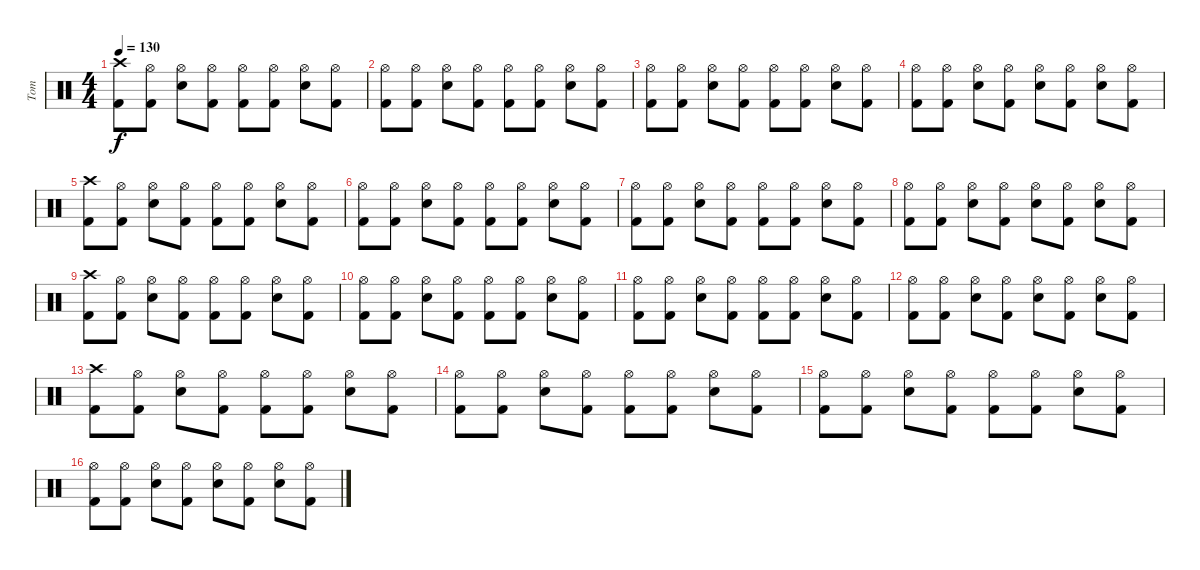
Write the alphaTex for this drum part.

\track ("Tom" "Tom") {instrument percussion}
\staff {score}
\articulation defaults
\ts (4 4)
\tempo 130
\clef neutral
\ks c
("Crash high (hit)" "Kick (hit) 2").8{dy f} ("Hi-Hat (open)" "Kick (hit) 2").8 ("Hi-Hat (open)" "Electric Snare (hit)").8 ("Hi-Hat (open)" "Kick (hit) 2").8 ("Hi-Hat (open)" "Kick (hit) 2").8 ("Hi-Hat (open)" "Kick (hit) 2").8 ("Hi-Hat (open)" "Electric Snare (hit)").8 ("Hi-Hat (open)" "Kick (hit) 2").8 |
("Hi-Hat (open)" "Kick (hit) 2").8 ("Hi-Hat (open)" "Kick (hit) 2").8 ("Hi-Hat (open)" "Electric Snare (hit)").8 ("Hi-Hat (open)" "Kick (hit) 2").8 ("Hi-Hat (open)" "Kick (hit) 2").8 ("Hi-Hat (open)" "Kick (hit) 2").8 ("Hi-Hat (open)" "Electric Snare (hit)").8 ("Hi-Hat (open)" "Kick (hit) 2").8 |
("Hi-Hat (open)" "Kick (hit) 2").8 ("Hi-Hat (open)" "Kick (hit) 2").8 ("Hi-Hat (open)" "Electric Snare (hit)").8 ("Hi-Hat (open)" "Kick (hit) 2").8 ("Hi-Hat (open)" "Kick (hit) 2").8 ("Hi-Hat (open)" "Kick (hit) 2").8 ("Hi-Hat (open)" "Electric Snare (hit)").8 ("Hi-Hat (open)" "Kick (hit) 2").8 |
("Hi-Hat (open)" "Kick (hit) 2").8 ("Hi-Hat (open)" "Kick (hit) 2").8 ("Hi-Hat (open)" "Electric Snare (hit)").8 ("Hi-Hat (open)" "Kick (hit) 2").8 ("Hi-Hat (open)" "Electric Snare (hit)").8 ("Hi-Hat (open)" "Kick (hit) 2").8 ("Hi-Hat (open)" "Electric Snare (hit)").8 ("Hi-Hat (open)" "Kick (hit) 2").8 |
("Crash high (hit)" "Kick (hit) 2").8 ("Hi-Hat (open)" "Kick (hit) 2").8 ("Hi-Hat (open)" "Electric Snare (hit)").8 ("Hi-Hat (open)" "Kick (hit) 2").8 ("Hi-Hat (open)" "Kick (hit) 2").8 ("Hi-Hat (open)" "Kick (hit) 2").8 ("Hi-Hat (open)" "Electric Snare (hit)").8 ("Hi-Hat (open)" "Kick (hit) 2").8 |
("Hi-Hat (open)" "Kick (hit) 2").8 ("Hi-Hat (open)" "Kick (hit) 2").8 ("Hi-Hat (open)" "Electric Snare (hit)").8 ("Hi-Hat (open)" "Kick (hit) 2").8 ("Hi-Hat (open)" "Kick (hit) 2").8 ("Hi-Hat (open)" "Kick (hit) 2").8 ("Hi-Hat (open)" "Electric Snare (hit)").8 ("Hi-Hat (open)" "Kick (hit) 2").8 |
("Hi-Hat (open)" "Kick (hit) 2").8 ("Hi-Hat (open)" "Kick (hit) 2").8 ("Hi-Hat (open)" "Electric Snare (hit)").8 ("Hi-Hat (open)" "Kick (hit) 2").8 ("Hi-Hat (open)" "Kick (hit) 2").8 ("Hi-Hat (open)" "Kick (hit) 2").8 ("Hi-Hat (open)" "Electric Snare (hit)").8 ("Hi-Hat (open)" "Kick (hit) 2").8 |
("Hi-Hat (open)" "Kick (hit) 2").8 ("Hi-Hat (open)" "Kick (hit) 2").8 ("Hi-Hat (open)" "Electric Snare (hit)").8 ("Hi-Hat (open)" "Kick (hit) 2").8 ("Hi-Hat (open)" "Electric Snare (hit)").8 ("Hi-Hat (open)" "Kick (hit) 2").8 ("Hi-Hat (open)" "Electric Snare (hit)").8 ("Hi-Hat (open)" "Kick (hit) 2").8 |
("Crash high (hit)" "Kick (hit) 2").8 ("Hi-Hat (open)" "Kick (hit) 2").8 ("Hi-Hat (open)" "Electric Snare (hit)").8 ("Hi-Hat (open)" "Kick (hit) 2").8 ("Hi-Hat (open)" "Kick (hit) 2").8 ("Hi-Hat (open)" "Kick (hit) 2").8 ("Hi-Hat (open)" "Electric Snare (hit)").8 ("Hi-Hat (open)" "Kick (hit) 2").8 |
("Hi-Hat (open)" "Kick (hit) 2").8 ("Hi-Hat (open)" "Kick (hit) 2").8 ("Hi-Hat (open)" "Electric Snare (hit)").8 ("Hi-Hat (open)" "Kick (hit) 2").8 ("Hi-Hat (open)" "Kick (hit) 2").8 ("Hi-Hat (open)" "Kick (hit) 2").8 ("Hi-Hat (open)" "Electric Snare (hit)").8 ("Hi-Hat (open)" "Kick (hit) 2").8 |
("Hi-Hat (open)" "Kick (hit) 2").8 ("Hi-Hat (open)" "Kick (hit) 2").8 ("Hi-Hat (open)" "Electric Snare (hit)").8 ("Hi-Hat (open)" "Kick (hit) 2").8 ("Hi-Hat (open)" "Kick (hit) 2").8 ("Hi-Hat (open)" "Kick (hit) 2").8 ("Hi-Hat (open)" "Electric Snare (hit)").8 ("Hi-Hat (open)" "Kick (hit) 2").8 |
("Hi-Hat (open)" "Kick (hit) 2").8 ("Hi-Hat (open)" "Kick (hit) 2").8 ("Hi-Hat (open)" "Electric Snare (hit)").8 ("Hi-Hat (open)" "Kick (hit) 2").8 ("Hi-Hat (open)" "Electric Snare (hit)").8 ("Hi-Hat (open)" "Kick (hit) 2").8 ("Hi-Hat (open)" "Electric Snare (hit)").8 ("Hi-Hat (open)" "Kick (hit) 2").8 |
("Crash high (hit)" "Kick (hit) 2").8 ("Hi-Hat (open)" "Kick (hit) 2").8 ("Hi-Hat (open)" "Electric Snare (hit)").8 ("Hi-Hat (open)" "Kick (hit) 2").8 ("Hi-Hat (open)" "Kick (hit) 2").8 ("Hi-Hat (open)" "Kick (hit) 2").8 ("Hi-Hat (open)" "Electric Snare (hit)").8 ("Hi-Hat (open)" "Kick (hit) 2").8 |
("Hi-Hat (open)" "Kick (hit) 2").8 ("Hi-Hat (open)" "Kick (hit) 2").8 ("Hi-Hat (open)" "Electric Snare (hit)").8 ("Hi-Hat (open)" "Kick (hit) 2").8 ("Hi-Hat (open)" "Kick (hit) 2").8 ("Hi-Hat (open)" "Kick (hit) 2").8 ("Hi-Hat (open)" "Electric Snare (hit)").8 ("Hi-Hat (open)" "Kick (hit) 2").8 |
("Hi-Hat (open)" "Kick (hit) 2").8 ("Hi-Hat (open)" "Kick (hit) 2").8 ("Hi-Hat (open)" "Electric Snare (hit)").8 ("Hi-Hat (open)" "Kick (hit) 2").8 ("Hi-Hat (open)" "Kick (hit) 2").8 ("Hi-Hat (open)" "Kick (hit) 2").8 ("Hi-Hat (open)" "Electric Snare (hit)").8 ("Hi-Hat (open)" "Kick (hit) 2").8 |
("Hi-Hat (open)" "Kick (hit) 2").8 ("Hi-Hat (open)" "Kick (hit) 2").8 ("Hi-Hat (open)" "Electric Snare (hit)").8 ("Hi-Hat (open)" "Kick (hit) 2").8 ("Hi-Hat (open)" "Electric Snare (hit)").8 ("Hi-Hat (open)" "Kick (hit) 2").8 ("Hi-Hat (open)" "Electric Snare (hit)").8 ("Hi-Hat (open)" "Kick (hit) 2").8
